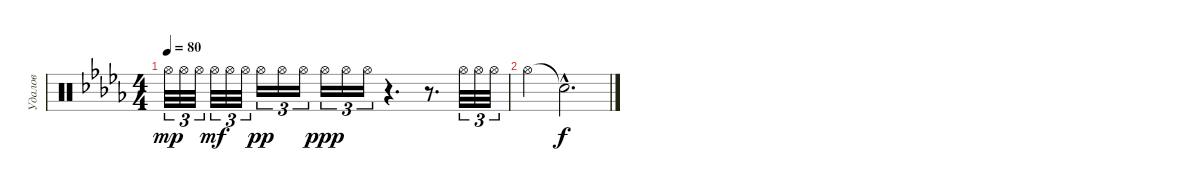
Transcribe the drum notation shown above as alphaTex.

\track ("Удалов " "Удалов ") {instrument percussion}
\staff {score}
\articulation defaults
\ts (4 4)
\tempo 80
\clef neutral
\ks db "Hi-Hat (open)".32{tu (3 2) dy mp} "Hi-Hat (open)".32{tu (3 2)} "Hi-Hat (open)".32{tu (3 2)} "Hi-Hat (open)".32{tu (3 2) dy mf} "Hi-Hat (open)".32{tu (3 2)} "Hi-Hat (open)".32{tu (3 2)} "Hi-Hat (open)".16{tu (3 2) dy pp} "Hi-Hat (open)".16{tu (3 2)} "Hi-Hat (open)".16{tu (3 2)} "Hi-Hat (open)".16{tu (3 2) dy ppp} "Hi-Hat (open)".16{tu (3 2)} "Hi-Hat (open)".16{tu (3 2)}
r.4{d} r.8{d} "Hi-Hat (open)".32{tu (3 2)} "Hi-Hat (open)".32{tu (3 2)} "Hi-Hat (open)".32{tu (3 2)} |
"Hi-Hat (open)".4 "Snare (hit)"{hac t}.2{d dy f}
